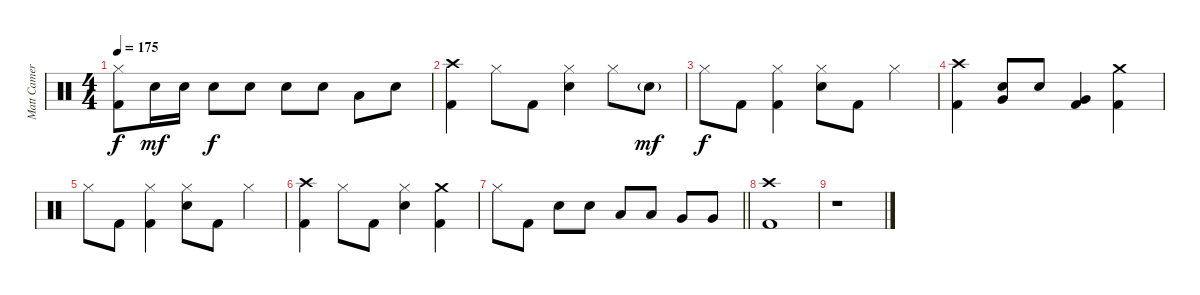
\track ("Matt Cameron Drum" "Matt Camer") {instrument percussion}
\staff {score}
\articulation defaults
\ts (4 4)
\tempo 175
\clef neutral
\ks c
("Hi-Hat (closed)" "Kick (hit) 2").8{dy f} "Electric Snare (hit)".16{dy mf} "Electric Snare (hit)".16 "Electric Snare (hit)".8{dy f} "Electric Snare (hit)".8 "Electric Snare (hit)".8 "Electric Snare (hit)".8 "Low Tom (hit)".8 "Electric Snare (hit)".8 |
("Crash high (hit)" "Kick (hit) 2").4 "Hi-Hat (closed)".8 "Kick (hit) 2".8 ("Hi-Hat (closed)" "Electric Snare (hit)").4 "Hi-Hat (closed)".8 "Electric Snare (hit)"{g}.8{dy mf} |
"Hi-Hat (closed)".8{dy f} "Kick (hit) 2".8 ("Hi-Hat (closed)" "Kick (hit) 2").4 ("Hi-Hat (closed)" "Electric Snare (hit)").8 "Kick (hit) 2".8 "Hi-Hat (closed)".4 |
("Crash high (hit)" "Kick (hit) 2").4 ("Very Low Tom (hit)" "Electric Snare (hit)").8 "Electric Snare (hit)".8 ("Very Low Tom (hit)" "Kick (hit) 2").4 ("Crash medium (hit)" "Kick (hit) 2").4 |
"Hi-Hat (closed)".8 "Kick (hit) 2".8 ("Hi-Hat (closed)" "Kick (hit) 2").4 ("Hi-Hat (closed)" "Electric Snare (hit)").8 "Kick (hit) 2".8 "Hi-Hat (closed)".4 |
("Crash high (hit)" "Kick (hit) 2").4 "Hi-Hat (closed)".8 "Kick (hit) 2".8 ("Hi-Hat (closed)" "Electric Snare (hit)").4 ("Crash medium (hit)" "Kick (hit) 2").4 |
\barLineRight lightlight "Hi-Hat (closed)".8 "Kick (hit) 2".8 "Electric Snare (hit)".8 "Electric Snare (hit)".8 "Low Tom (hit)".8 "Low Tom (hit)".8 "Very Low Tom (hit)".8 "Very Low Tom (hit)".8
|
("Crash high (hit)" "Kick (hit) 2").1 |
r.1
